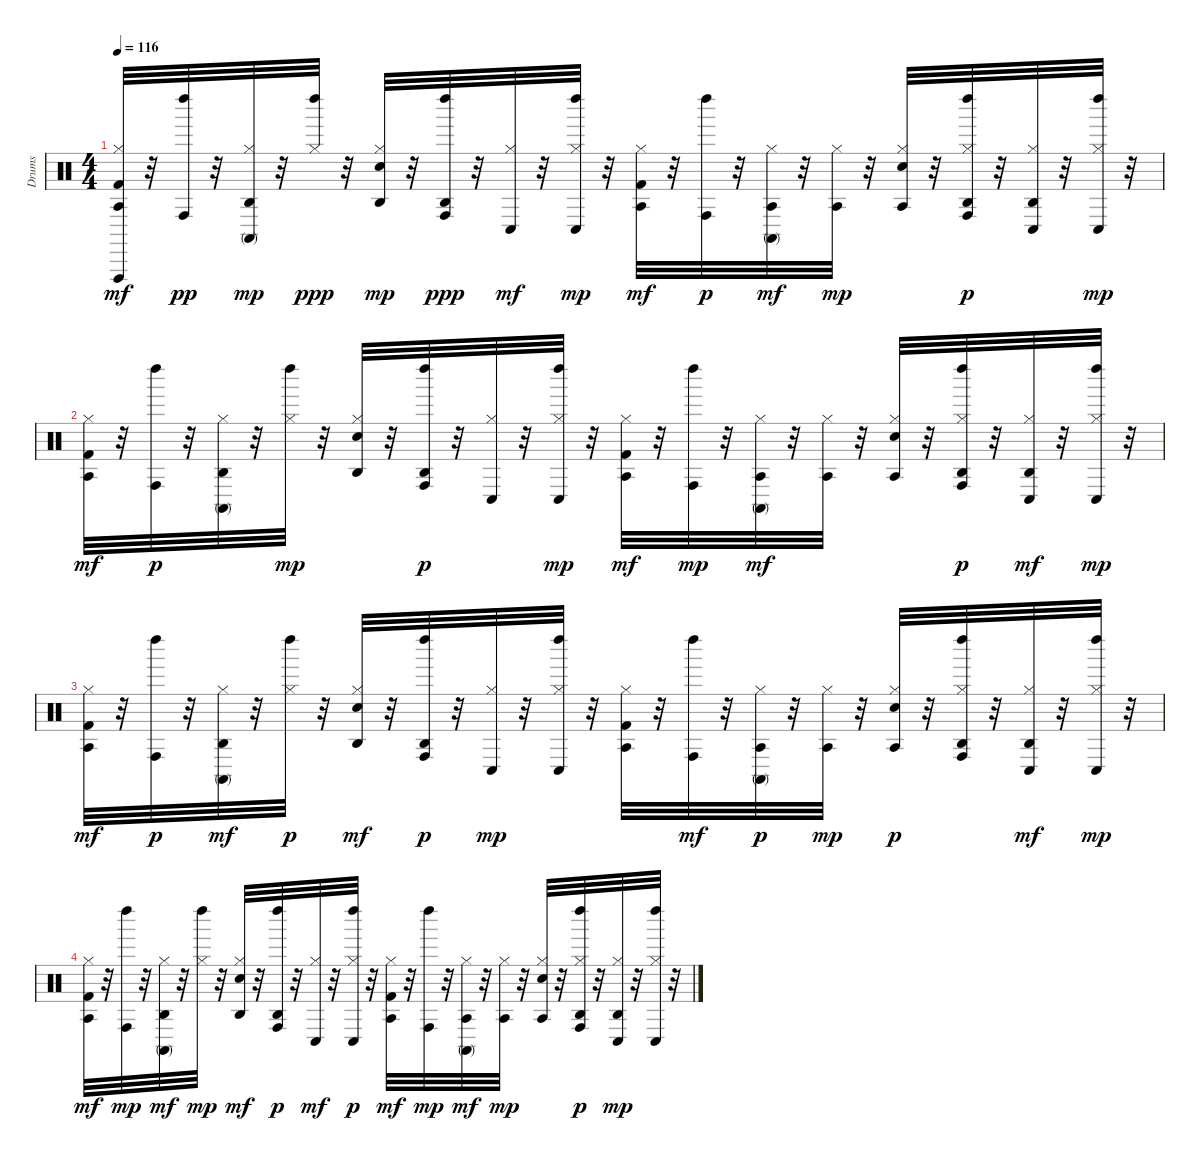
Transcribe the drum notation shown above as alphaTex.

\track ("Drums" "Drums") {instrument percussion}
\staff {score}
\articulation defaults
\ts (4 4)
\tempo 116
\clef neutral
\ks c
("Agogo tow (hit)" "Kick (hit) 2" "Hi-Hat (closed)" "Vibraslap (hit)").32{dy mf} r.32 ("Conga high (hit)" "Left Maraca (hit)").32{dy pp} r.32 ("Hi-Hat (closed)" "Agogo high (hit)" "Conga high (mute)").32{dy mp} r.32 ("Hi-Hat (closed)" "Left Maraca (hit)").32{dy ppp} r.32 ("Snare (hit) 2" "Hi-Hat (closed)" "Agogo high (hit)").32{dy mp} r.32 ("Conga high (hit)" "Agogo high (hit)" "Left Maraca (hit)").32{dy ppp} r.32 ("Conga low (hit)" "Hi-Hat (closed)").32{dy mf} r.32 ("Hi-Hat (closed)" "Left Maraca (hit)" "Conga low (hit)").32{dy mp} r.32 ("Hi-Hat (closed)" "Agogo tow (hit)" "Kick (hit) 2").32{dy mf} r.32 ("Conga high (hit)" "Left Maraca (hit)").32{dy p} r.32 ("Conga high (mute)" "Hi-Hat (closed)" "Agogo tow (hit)").32{dy mf} r.32 ("Agogo tow (hit)" "Hi-Hat (closed)").32{dy mp} r.32 ("Snare (hit) 2" "Hi-Hat (closed)" "Agogo tow (hit)").32 r.32 ("Left Maraca (hit)" "Agogo high (hit)" "Hi-Hat (closed)" "Conga high (hit)").32{dy p} r.32 ("Agogo high (hit)" "Hi-Hat (closed)" "Conga low (hit)").32 r.32 ("Conga low (hit)" "Left Maraca (hit)" "Hi-Hat (closed)").32{dy mp} r.32 |
("Agogo tow (hit)" "Hi-Hat (closed)" "Kick (hit) 2").32{dy mf} r.32 ("Conga high (hit)" "Left Maraca (hit)").32{dy p} r.32 ("Agogo high (hit)" "Hi-Hat (closed)" "Conga high (mute)").32 r.32 ("Left Maraca (hit)" "Hi-Hat (closed)").32{dy mp} r.32 ("Snare (hit) 2" "Hi-Hat (closed)" "Agogo high (hit)").32 r.32 ("Conga high (hit)" "Agogo high (hit)" "Left Maraca (hit)").32{dy p} r.32 ("Hi-Hat (closed)" "Conga low (hit)").32 r.32 ("Hi-Hat (closed)" "Conga low (hit)" "Left Maraca (hit)").32{dy mp} r.32 ("Hi-Hat (closed)" "Kick (hit) 2" "Agogo tow (hit)").32{dy mf} r.32 ("Conga high (hit)" "Left Maraca (hit)").32{dy mp} r.32 ("Conga high (mute)" "Agogo tow (hit)" "Hi-Hat (closed)").32{dy mf} r.32 ("Hi-Hat (closed)" "Agogo tow (hit)").32 r.32 ("Agogo tow (hit)" "Hi-Hat (closed)" "Snare (hit) 2").32 r.32 ("Conga high (hit)" "Hi-Hat (closed)" "Agogo high (hit)" "Left Maraca (hit)").32{dy p} r.32 ("Conga low (hit)" "Agogo high (hit)" "Hi-Hat (closed)").32{dy mf} r.32 ("Hi-Hat (closed)" "Conga low (hit)" "Left Maraca (hit)").32{dy mp} r.32 |
("Kick (hit) 2" "Hi-Hat (closed)" "Agogo tow (hit)").32{dy mf} r.32 ("Conga high (hit)" "Left Maraca (hit)").32{dy p} r.32 ("Agogo high (hit)" "Conga high (mute)" "Hi-Hat (closed)").32{dy mf} r.32 ("Hi-Hat (closed)" "Left Maraca (hit)").32{dy p} r.32 ("Snare (hit) 2" "Agogo high (hit)" "Hi-Hat (closed)").32{dy mf} r.32 ("Conga high (hit)" "Left Maraca (hit)" "Agogo high (hit)").32{dy p} r.32 ("Hi-Hat (closed)" "Conga low (hit)").32{dy mp} r.32 ("Hi-Hat (closed)" "Left Maraca (hit)" "Conga low (hit)").32 r.32 ("Kick (hit) 2" "Hi-Hat (closed)" "Agogo tow (hit)").32 r.32 ("Left Maraca (hit)" "Conga high (hit)").32{dy mf} r.32 ("Agogo tow (hit)" "Hi-Hat (closed)" "Conga high (mute)").32{dy p} r.32 ("Agogo tow (hit)" "Hi-Hat (closed)").32{dy mp} r.32 ("Snare (hit) 2" "Hi-Hat (closed)" "Agogo tow (hit)").32{dy p} r.32 ("Hi-Hat (closed)" "Conga high (hit)" "Agogo high (hit)" "Left Maraca (hit)").32 r.32 ("Conga low (hit)" "Agogo high (hit)" "Hi-Hat (closed)").32{dy mf} r.32 ("Left Maraca (hit)" "Conga low (hit)" "Hi-Hat (closed)").32{dy mp} r.32 |
("Agogo tow (hit)" "Kick (hit) 2" "Hi-Hat (closed)").32{dy mf} r.32 ("Left Maraca (hit)" "Conga high (hit)").32{dy mp} r.32 ("Agogo high (hit)" "Conga high (mute)" "Hi-Hat (closed)").32{dy mf} r.32 ("Left Maraca (hit)" "Hi-Hat (closed)").32{dy mp} r.32 ("Hi-Hat (closed)" "Agogo high (hit)" "Snare (hit) 2").32{dy mf} r.32 ("Conga high (hit)" "Agogo high (hit)" "Left Maraca (hit)").32{dy p} r.32 ("Conga low (hit)" "Hi-Hat (closed)").32{dy mf} r.32 ("Left Maraca (hit)" "Hi-Hat (closed)" "Conga low (hit)").32{dy p} r.32 ("Hi-Hat (closed)" "Agogo tow (hit)" "Kick (hit) 2").32{dy mf} r.32 ("Left Maraca (hit)" "Conga high (hit)").32{dy mp} r.32 ("Hi-Hat (closed)" "Conga high (mute)" "Agogo tow (hit)").32{dy mf} r.32 ("Hi-Hat (closed)" "Agogo tow (hit)").32{dy mp} r.32 ("Hi-Hat (closed)" "Snare (hit) 2" "Agogo tow (hit)").32 r.32 ("Conga high (hit)" "Hi-Hat (closed)" "Agogo high (hit)" "Left Maraca (hit)").32{dy p} r.32 ("Agogo high (hit)" "Hi-Hat (closed)" "Conga low (hit)").32{dy mp} r.32 ("Hi-Hat (closed)" "Conga low (hit)" "Left Maraca (hit)").32 r.32
